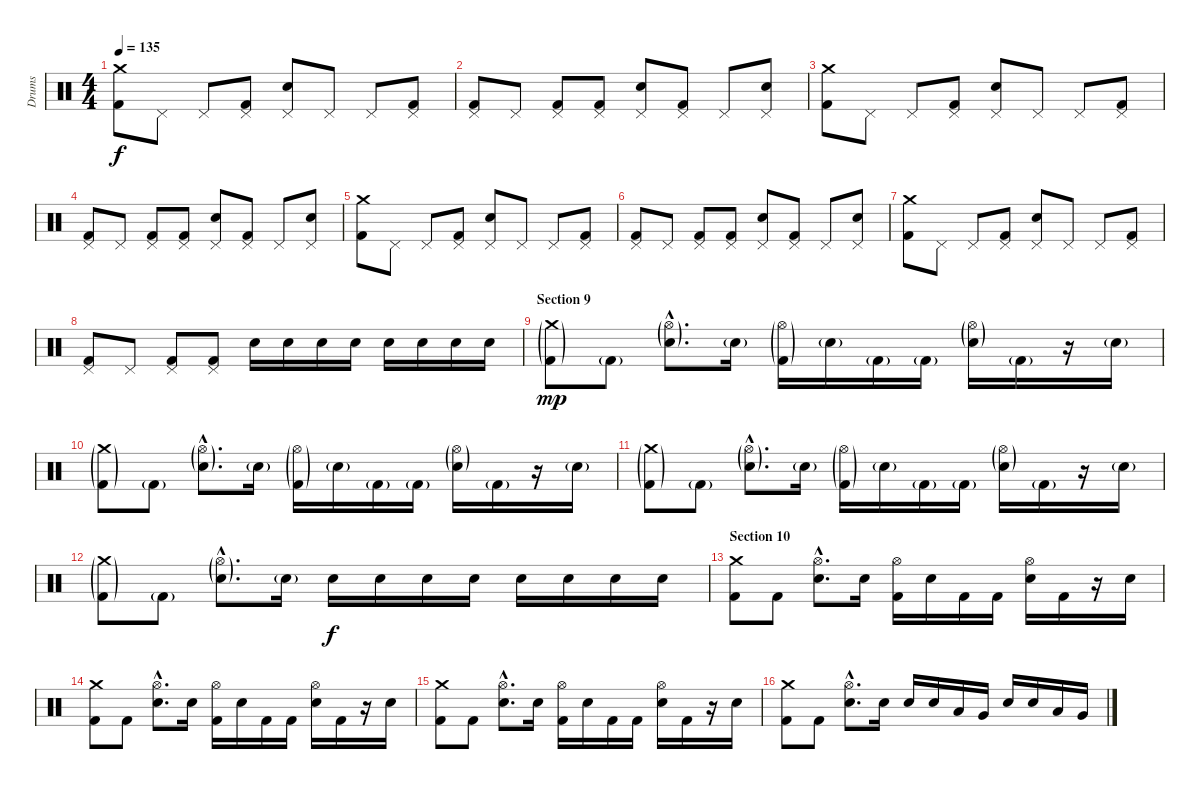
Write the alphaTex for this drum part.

\track ("Drums" "Drums") {instrument percussion}
\staff {score}
\articulation defaults
\ts (4 4)
\tempo 135
\clef neutral
\ks c
("Crash medium (hit)" "Kick (hit) 2").8{dy f} "Pedal Hi-Hat (hit)".8 "Pedal Hi-Hat (hit)".8 ("Pedal Hi-Hat (hit)" "Kick (hit) 2").8 ("Pedal Hi-Hat (hit)" "Electric Snare (hit)").8 "Pedal Hi-Hat (hit)".8 "Pedal Hi-Hat (hit)".8 ("Pedal Hi-Hat (hit)" "Kick (hit) 2").8 |
("Pedal Hi-Hat (hit)" "Kick (hit) 2").8 "Pedal Hi-Hat (hit)".8 ("Pedal Hi-Hat (hit)" "Kick (hit) 2").8 ("Pedal Hi-Hat (hit)" "Kick (hit) 2").8 ("Pedal Hi-Hat (hit)" "Electric Snare (hit)").8 ("Pedal Hi-Hat (hit)" "Kick (hit) 2").8 "Pedal Hi-Hat (hit)".8 ("Pedal Hi-Hat (hit)" "Electric Snare (hit)").8 |
("Crash medium (hit)" "Kick (hit) 2").8 "Pedal Hi-Hat (hit)".8 "Pedal Hi-Hat (hit)".8 ("Pedal Hi-Hat (hit)" "Kick (hit) 2").8 ("Pedal Hi-Hat (hit)" "Electric Snare (hit)").8 "Pedal Hi-Hat (hit)".8 "Pedal Hi-Hat (hit)".8 ("Pedal Hi-Hat (hit)" "Kick (hit) 2").8 |
("Pedal Hi-Hat (hit)" "Kick (hit) 2").8 "Pedal Hi-Hat (hit)".8 ("Pedal Hi-Hat (hit)" "Kick (hit) 2").8 ("Pedal Hi-Hat (hit)" "Kick (hit) 2").8 ("Pedal Hi-Hat (hit)" "Electric Snare (hit)").8 ("Pedal Hi-Hat (hit)" "Kick (hit) 2").8 "Pedal Hi-Hat (hit)".8 ("Pedal Hi-Hat (hit)" "Electric Snare (hit)").8 |
("Crash medium (hit)" "Kick (hit) 2").8 "Pedal Hi-Hat (hit)".8 "Pedal Hi-Hat (hit)".8 ("Pedal Hi-Hat (hit)" "Kick (hit) 2").8 ("Pedal Hi-Hat (hit)" "Electric Snare (hit)").8 "Pedal Hi-Hat (hit)".8 "Pedal Hi-Hat (hit)".8 ("Pedal Hi-Hat (hit)" "Kick (hit) 2").8 |
("Pedal Hi-Hat (hit)" "Kick (hit) 2").8 "Pedal Hi-Hat (hit)".8 ("Pedal Hi-Hat (hit)" "Kick (hit) 2").8 ("Pedal Hi-Hat (hit)" "Kick (hit) 2").8 ("Pedal Hi-Hat (hit)" "Electric Snare (hit)").8 ("Pedal Hi-Hat (hit)" "Kick (hit) 2").8 "Pedal Hi-Hat (hit)".8 ("Pedal Hi-Hat (hit)" "Electric Snare (hit)").8 |
("Crash medium (hit)" "Kick (hit) 2").8 "Pedal Hi-Hat (hit)".8 "Pedal Hi-Hat (hit)".8 ("Pedal Hi-Hat (hit)" "Kick (hit) 2").8 ("Pedal Hi-Hat (hit)" "Electric Snare (hit)").8 "Pedal Hi-Hat (hit)".8 "Pedal Hi-Hat (hit)".8 ("Pedal Hi-Hat (hit)" "Kick (hit) 2").8 |
("Pedal Hi-Hat (hit)" "Kick (hit) 2").8 "Pedal Hi-Hat (hit)".8 ("Pedal Hi-Hat (hit)" "Kick (hit) 2").8 ("Pedal Hi-Hat (hit)" "Kick (hit) 2").8 "Electric Snare (hit)".16 "Electric Snare (hit)".16 "Electric Snare (hit)".16 "Electric Snare (hit)".16 "Electric Snare (hit)".16 "Electric Snare (hit)".16 "Electric Snare (hit)".16 "Electric Snare (hit)".16 |
\section ("" "Section 9")
("Crash medium (hit)"{g} "Kick (hit) 2"{g}).8{dy mp} "Kick (hit) 2"{g}.8 ("Hi-Hat (open)"{g hac} "Electric Snare (hit)"{g hac}).8{d} "Electric Snare (hit)"{g}.16 ("Hi-Hat (open)"{g} "Kick (hit) 2"{g}).16 "Electric Snare (hit)"{g}.16 "Kick (hit) 2"{g}.16 "Kick (hit) 2"{g}.16 ("Hi-Hat (open)"{g} "Electric Snare (hit)"{g}).16 "Kick (hit) 2"{g}.16 r.16 "Electric Snare (hit)"{g}.16 |
("Crash medium (hit)"{g} "Kick (hit) 2"{g}).8 "Kick (hit) 2"{g}.8 ("Hi-Hat (open)"{g hac} "Electric Snare (hit)"{g hac}).8{d} "Electric Snare (hit)"{g}.16 ("Hi-Hat (open)"{g} "Kick (hit) 2"{g}).16 "Electric Snare (hit)"{g}.16 "Kick (hit) 2"{g}.16 "Kick (hit) 2"{g}.16 ("Hi-Hat (open)"{g} "Electric Snare (hit)"{g}).16 "Kick (hit) 2"{g}.16 r.16 "Electric Snare (hit)"{g}.16 |
("Crash medium (hit)"{g} "Kick (hit) 2"{g}).8 "Kick (hit) 2"{g}.8 ("Hi-Hat (open)"{g hac} "Electric Snare (hit)"{g hac}).8{d} "Electric Snare (hit)"{g}.16 ("Hi-Hat (open)"{g} "Kick (hit) 2"{g}).16 "Electric Snare (hit)"{g}.16 "Kick (hit) 2"{g}.16 "Kick (hit) 2"{g}.16 ("Hi-Hat (open)"{g} "Electric Snare (hit)"{g}).16 "Kick (hit) 2"{g}.16 r.16 "Electric Snare (hit)"{g}.16 |
("Crash medium (hit)"{g} "Kick (hit) 2"{g}).8 "Kick (hit) 2"{g}.8 ("Hi-Hat (open)"{g hac} "Electric Snare (hit)"{g hac}).8{d} "Electric Snare (hit)"{g}.16 "Electric Snare (hit)".16{dy f} "Electric Snare (hit)".16 "Electric Snare (hit)".16 "Electric Snare (hit)".16 "Electric Snare (hit)".16 "Electric Snare (hit)".16 "Electric Snare (hit)".16 "Electric Snare (hit)".16 |
\section ("" "Section 10")
("Crash medium (hit)" "Kick (hit) 2").8 "Kick (hit) 2".8 ("Hi-Hat (open)"{hac} "Electric Snare (hit)"{hac}).8{d} "Electric Snare (hit)".16 ("Hi-Hat (open)" "Kick (hit) 2").16 "Electric Snare (hit)".16 "Kick (hit) 2".16 "Kick (hit) 2".16 ("Hi-Hat (open)" "Electric Snare (hit)").16 "Kick (hit) 2".16 r.16 "Electric Snare (hit)".16 |
("Crash medium (hit)" "Kick (hit) 2").8 "Kick (hit) 2".8 ("Hi-Hat (open)"{hac} "Electric Snare (hit)"{hac}).8{d} "Electric Snare (hit)".16 ("Hi-Hat (open)" "Kick (hit) 2").16 "Electric Snare (hit)".16 "Kick (hit) 2".16 "Kick (hit) 2".16 ("Hi-Hat (open)" "Electric Snare (hit)").16 "Kick (hit) 2".16 r.16 "Electric Snare (hit)".16 |
("Crash medium (hit)" "Kick (hit) 2").8 "Kick (hit) 2".8 ("Hi-Hat (open)"{hac} "Electric Snare (hit)"{hac}).8{d} "Electric Snare (hit)".16 ("Hi-Hat (open)" "Kick (hit) 2").16 "Electric Snare (hit)".16 "Kick (hit) 2".16 "Kick (hit) 2".16 ("Hi-Hat (open)" "Electric Snare (hit)").16 "Kick (hit) 2".16 r.16 "Electric Snare (hit)".16 |
("Crash medium (hit)" "Kick (hit) 2").8 "Kick (hit) 2".8 ("Hi-Hat (open)"{hac} "Electric Snare (hit)"{hac}).8{d} "Electric Snare (hit)".16 "Electric Snare (hit)".16 "Electric Snare (hit)".16 "Low Tom (hit)".16 "Very Low Tom (hit)".16 "Electric Snare (hit)".16 "Electric Snare (hit)".16 "Low Tom (hit)".16 "Very Low Tom (hit)".16
